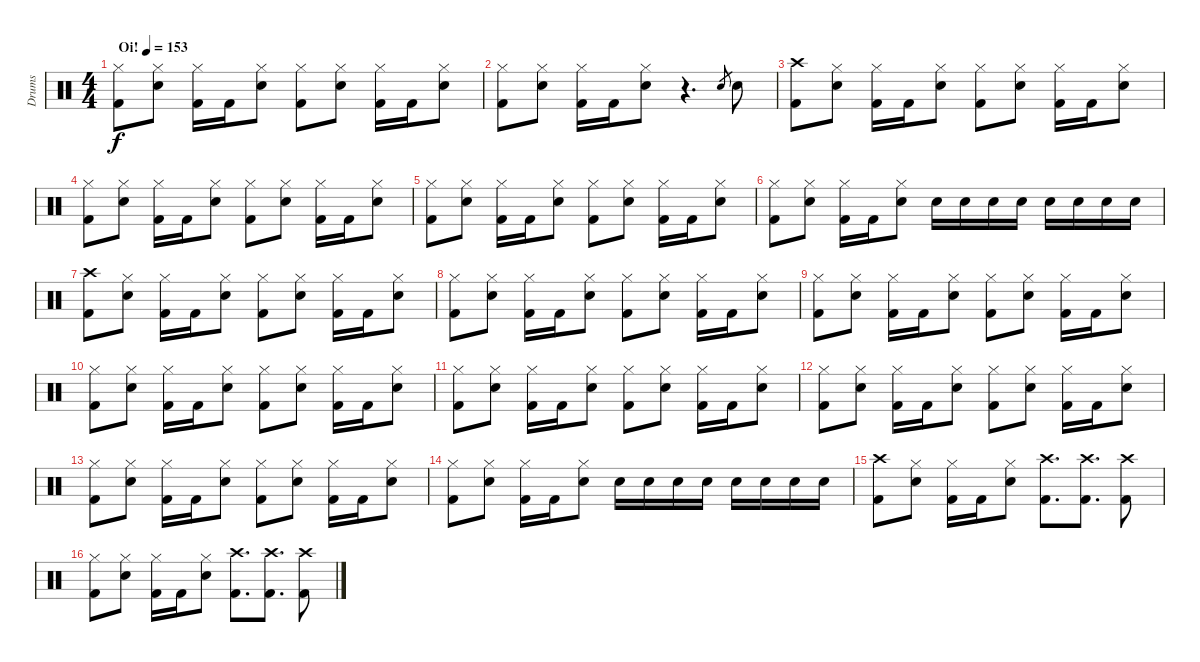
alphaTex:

\track ("Drums" "Drums") {instrument percussion}
\staff {score}
\articulation defaults
\ts (4 4)
\tempo (153 "Oi!")
\clef neutral
\ks c
("Hi-Hat (closed)" "Kick (hit) 2").8{dy f} ("Hi-Hat (closed)" "Snare (hit) 2").8 ("Hi-Hat (closed)" "Kick (hit) 2").16 "Kick (hit) 2".16 ("Hi-Hat (closed)" "Snare (hit) 2").8 ("Hi-Hat (closed)" "Kick (hit) 2").8 ("Hi-Hat (closed)" "Snare (hit) 2").8 ("Hi-Hat (closed)" "Kick (hit) 2").16 "Kick (hit) 2".16 ("Hi-Hat (closed)" "Snare (hit) 2").8 |
("Hi-Hat (closed)" "Kick (hit) 2").8 ("Hi-Hat (closed)" "Snare (hit) 2").8 ("Hi-Hat (closed)" "Kick (hit) 2").16 "Kick (hit) 2".16 ("Hi-Hat (closed)" "Snare (hit) 2").8 r.4{d} "Snare (hit) 2".8{gr} "Snare (hit) 2".8 |
("Crash high (hit)" "Kick (hit) 2").8 ("Hi-Hat (closed)" "Snare (hit) 2").8 ("Hi-Hat (closed)" "Kick (hit) 2").16 "Kick (hit) 2".16 ("Hi-Hat (closed)" "Snare (hit) 2").8 ("Hi-Hat (closed)" "Kick (hit) 2").8 ("Hi-Hat (closed)" "Snare (hit) 2").8 ("Hi-Hat (closed)" "Kick (hit) 2").16 "Kick (hit) 2".16 ("Hi-Hat (closed)" "Snare (hit) 2").8 |
("Hi-Hat (closed)" "Kick (hit) 2").8 ("Hi-Hat (closed)" "Snare (hit) 2").8 ("Hi-Hat (closed)" "Kick (hit) 2").16 "Kick (hit) 2".16 ("Hi-Hat (closed)" "Snare (hit) 2").8 ("Hi-Hat (closed)" "Kick (hit) 2").8 ("Hi-Hat (closed)" "Snare (hit) 2").8 ("Hi-Hat (closed)" "Kick (hit) 2").16 "Kick (hit) 2".16 ("Hi-Hat (closed)" "Snare (hit) 2").8 |
("Hi-Hat (closed)" "Kick (hit) 2").8 ("Hi-Hat (closed)" "Snare (hit) 2").8 ("Hi-Hat (closed)" "Kick (hit) 2").16 "Kick (hit) 2".16 ("Hi-Hat (closed)" "Snare (hit) 2").8 ("Hi-Hat (closed)" "Kick (hit) 2").8 ("Hi-Hat (closed)" "Snare (hit) 2").8 ("Hi-Hat (closed)" "Kick (hit) 2").16 "Kick (hit) 2".16 ("Hi-Hat (closed)" "Snare (hit) 2").8 |
("Hi-Hat (closed)" "Kick (hit) 2").8 ("Hi-Hat (closed)" "Snare (hit) 2").8 ("Hi-Hat (closed)" "Kick (hit) 2").16 "Kick (hit) 2".16 ("Hi-Hat (closed)" "Snare (hit) 2").8 "Snare (hit) 2".16 "Snare (hit) 2".16 "Snare (hit) 2".16 "Snare (hit) 2".16 "Snare (hit) 2".16 "Snare (hit) 2".16 "Snare (hit) 2".16 "Snare (hit) 2".16 |
("Crash high (hit)" "Kick (hit) 2").8 ("Hi-Hat (closed)" "Snare (hit) 2").8 ("Hi-Hat (closed)" "Kick (hit) 2").16 "Kick (hit) 2".16 ("Hi-Hat (closed)" "Snare (hit) 2").8 ("Hi-Hat (closed)" "Kick (hit) 2").8 ("Hi-Hat (closed)" "Snare (hit) 2").8 ("Hi-Hat (closed)" "Kick (hit) 2").16 "Kick (hit) 2".16 ("Hi-Hat (closed)" "Snare (hit) 2").8 |
("Hi-Hat (closed)" "Kick (hit) 2").8 ("Hi-Hat (closed)" "Snare (hit) 2").8 ("Hi-Hat (closed)" "Kick (hit) 2").16 "Kick (hit) 2".16 ("Hi-Hat (closed)" "Snare (hit) 2").8 ("Hi-Hat (closed)" "Kick (hit) 2").8 ("Hi-Hat (closed)" "Snare (hit) 2").8 ("Hi-Hat (closed)" "Kick (hit) 2").16 "Kick (hit) 2".16 ("Hi-Hat (closed)" "Snare (hit) 2").8 |
("Hi-Hat (closed)" "Kick (hit) 2").8 ("Hi-Hat (closed)" "Snare (hit) 2").8 ("Hi-Hat (closed)" "Kick (hit) 2").16 "Kick (hit) 2".16 ("Hi-Hat (closed)" "Snare (hit) 2").8 ("Hi-Hat (closed)" "Kick (hit) 2").8 ("Hi-Hat (closed)" "Snare (hit) 2").8 ("Hi-Hat (closed)" "Kick (hit) 2").16 "Kick (hit) 2".16 ("Hi-Hat (closed)" "Snare (hit) 2").8 |
("Hi-Hat (closed)" "Kick (hit) 2").8 ("Hi-Hat (closed)" "Snare (hit) 2").8 ("Hi-Hat (closed)" "Kick (hit) 2").16 "Kick (hit) 2".16 ("Hi-Hat (closed)" "Snare (hit) 2").8 ("Hi-Hat (closed)" "Kick (hit) 2").8 ("Hi-Hat (closed)" "Snare (hit) 2").8 ("Hi-Hat (closed)" "Kick (hit) 2").16 "Kick (hit) 2".16 ("Hi-Hat (closed)" "Snare (hit) 2").8 |
("Hi-Hat (closed)" "Kick (hit) 2").8 ("Hi-Hat (closed)" "Snare (hit) 2").8 ("Hi-Hat (closed)" "Kick (hit) 2").16 "Kick (hit) 2".16 ("Hi-Hat (closed)" "Snare (hit) 2").8 ("Hi-Hat (closed)" "Kick (hit) 2").8 ("Hi-Hat (closed)" "Snare (hit) 2").8 ("Hi-Hat (closed)" "Kick (hit) 2").16 "Kick (hit) 2".16 ("Hi-Hat (closed)" "Snare (hit) 2").8 |
("Hi-Hat (closed)" "Kick (hit) 2").8 ("Hi-Hat (closed)" "Snare (hit) 2").8 ("Hi-Hat (closed)" "Kick (hit) 2").16 "Kick (hit) 2".16 ("Hi-Hat (closed)" "Snare (hit) 2").8 ("Hi-Hat (closed)" "Kick (hit) 2").8 ("Hi-Hat (closed)" "Snare (hit) 2").8 ("Hi-Hat (closed)" "Kick (hit) 2").16 "Kick (hit) 2".16 ("Hi-Hat (closed)" "Snare (hit) 2").8 |
("Hi-Hat (closed)" "Kick (hit) 2").8 ("Hi-Hat (closed)" "Snare (hit) 2").8 ("Hi-Hat (closed)" "Kick (hit) 2").16 "Kick (hit) 2".16 ("Hi-Hat (closed)" "Snare (hit) 2").8 ("Hi-Hat (closed)" "Kick (hit) 2").8 ("Hi-Hat (closed)" "Snare (hit) 2").8 ("Hi-Hat (closed)" "Kick (hit) 2").16 "Kick (hit) 2".16 ("Hi-Hat (closed)" "Snare (hit) 2").8 |
("Hi-Hat (closed)" "Kick (hit) 2").8 ("Hi-Hat (closed)" "Snare (hit) 2").8 ("Hi-Hat (closed)" "Kick (hit) 2").16 "Kick (hit) 2".16 ("Hi-Hat (closed)" "Snare (hit) 2").8 "Snare (hit) 2".16 "Snare (hit) 2".16 "Snare (hit) 2".16 "Snare (hit) 2".16 "Snare (hit) 2".16 "Snare (hit) 2".16 "Snare (hit) 2".16 "Snare (hit) 2".16 |
("Crash high (hit)" "Kick (hit) 2").8 ("Hi-Hat (closed)" "Snare (hit) 2").8 ("Hi-Hat (closed)" "Kick (hit) 2").16 "Kick (hit) 2".16 ("Hi-Hat (closed)" "Snare (hit) 2").8 ("Crash high (hit)" "Kick (hit) 2").8{d} ("Crash high (hit)" "Kick (hit) 2").8{d} ("Crash high (hit)" "Kick (hit) 2").8 |
("Hi-Hat (closed)" "Kick (hit) 2").8 ("Hi-Hat (closed)" "Snare (hit) 2").8 ("Hi-Hat (closed)" "Kick (hit) 2").16 "Kick (hit) 2".16 ("Hi-Hat (closed)" "Snare (hit) 2").8 ("Crash high (hit)" "Kick (hit) 2").8{d} ("Crash high (hit)" "Kick (hit) 2").8{d} ("Crash high (hit)" "Kick (hit) 2").8
